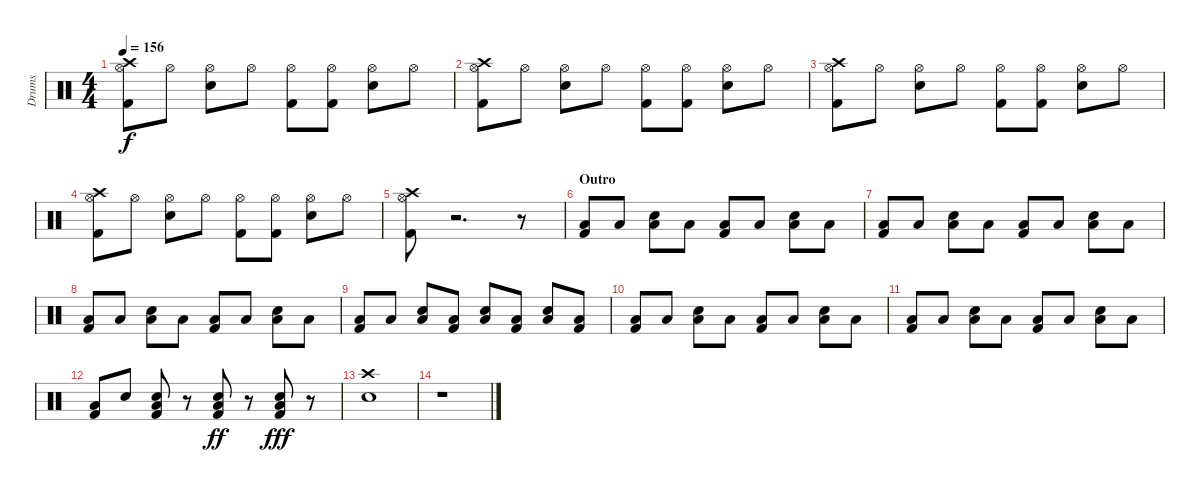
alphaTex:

\track ("Drums" "Drums") {instrument percussion}
\staff {score}
\articulation defaults
\ts (4 4)
\tempo 156
\clef neutral
\ks c
("Crash high (hit)" "Hi-Hat (open)" "Kick (hit) 2").8{dy f} "Hi-Hat (open)".8 ("Hi-Hat (open)" "Snare (hit) 2").8 "Hi-Hat (open)".8 ("Hi-Hat (open)" "Kick (hit) 2").8 ("Hi-Hat (open)" "Kick (hit) 2").8 ("Hi-Hat (open)" "Snare (hit) 2").8 "Hi-Hat (open)".8 |
("Crash high (hit)" "Hi-Hat (open)" "Kick (hit) 2").8 "Hi-Hat (open)".8 ("Hi-Hat (open)" "Snare (hit) 2").8 "Hi-Hat (open)".8 ("Hi-Hat (open)" "Kick (hit) 2").8 ("Hi-Hat (open)" "Kick (hit) 2").8 ("Hi-Hat (open)" "Snare (hit) 2").8 "Hi-Hat (open)".8 |
("Crash high (hit)" "Hi-Hat (open)" "Kick (hit) 2").8 "Hi-Hat (open)".8 ("Hi-Hat (open)" "Snare (hit) 2").8 "Hi-Hat (open)".8 ("Hi-Hat (open)" "Kick (hit) 2").8 ("Hi-Hat (open)" "Kick (hit) 2").8 ("Hi-Hat (open)" "Snare (hit) 2").8 "Hi-Hat (open)".8 |
("Crash high (hit)" "Hi-Hat (open)" "Kick (hit) 2").8 "Hi-Hat (open)".8 ("Hi-Hat (open)" "Snare (hit) 2").8 "Hi-Hat (open)".8 ("Hi-Hat (open)" "Kick (hit) 2").8 ("Hi-Hat (open)" "Kick (hit) 2").8 ("Hi-Hat (open)" "Snare (hit) 2").8 "Hi-Hat (open)".8 |
("Crash high (hit)" "Hi-Hat (open)" "Kick (hit) 2").8 r.2{d} r.8 |
\section ("" "Outro")
("Low Floor Tom (hit)" "Kick (hit) 2").8 "Low Floor Tom (hit)".8 ("Snare (hit) 2" "Low Floor Tom (hit)").8 "Low Floor Tom (hit)".8 ("Low Floor Tom (hit)" "Kick (hit) 2").8 "Low Floor Tom (hit)".8 ("Snare (hit) 2" "Low Floor Tom (hit)").8 "Low Floor Tom (hit)".8 |
("Low Floor Tom (hit)" "Kick (hit) 2").8 "Low Floor Tom (hit)".8 ("Snare (hit) 2" "Low Floor Tom (hit)").8 "Low Floor Tom (hit)".8 ("Low Floor Tom (hit)" "Kick (hit) 2").8 "Low Floor Tom (hit)".8 ("Snare (hit) 2" "Low Floor Tom (hit)").8 "Low Floor Tom (hit)".8 |
("Low Floor Tom (hit)" "Kick (hit) 2").8 "Low Floor Tom (hit)".8 ("Snare (hit) 2" "Low Floor Tom (hit)").8 "Low Floor Tom (hit)".8 ("Low Floor Tom (hit)" "Kick (hit) 2").8 "Low Floor Tom (hit)".8 ("Snare (hit) 2" "Low Floor Tom (hit)").8 "Low Floor Tom (hit)".8 |
("Low Floor Tom (hit)" "Kick (hit) 2").8 "Low Floor Tom (hit)".8 ("Snare (hit) 2" "Low Floor Tom (hit)").8 ("Low Floor Tom (hit)" "Kick (hit) 2").8 ("Snare (hit) 2" "Low Floor Tom (hit)").8 ("Low Floor Tom (hit)" "Kick (hit) 2").8 ("Snare (hit) 2" "Low Floor Tom (hit)").8 ("Low Floor Tom (hit)" "Kick (hit) 2").8 |
("Low Floor Tom (hit)" "Kick (hit) 2").8 "Low Floor Tom (hit)".8 ("Snare (hit) 2" "Low Floor Tom (hit)").8 "Low Floor Tom (hit)".8 ("Low Floor Tom (hit)" "Kick (hit) 2").8 "Low Floor Tom (hit)".8 ("Snare (hit) 2" "Low Floor Tom (hit)").8 "Low Floor Tom (hit)".8 |
("Low Floor Tom (hit)" "Kick (hit) 2").8 "Low Floor Tom (hit)".8 ("Snare (hit) 2" "Low Floor Tom (hit)").8 "Low Floor Tom (hit)".8 ("Low Floor Tom (hit)" "Kick (hit) 2").8 "Low Floor Tom (hit)".8 ("Snare (hit) 2" "Low Floor Tom (hit)").8 "Low Floor Tom (hit)".8 |
("Low Floor Tom (hit)" "Kick (hit) 2").8 "Snare (hit) 2".8 ("Snare (hit) 2" "Low Floor Tom (hit)" "Kick (hit) 2").8 r.8 ("Snare (hit) 2" "Low Floor Tom (hit)" "Kick (hit) 2").8{dy ff} r.8 ("Snare (hit) 2" "Low Floor Tom (hit)" "Kick (hit) 2").8{dy fff} r.8 |
("Crash high (hit)" "Snare (hit) 2").1 |
r.1
